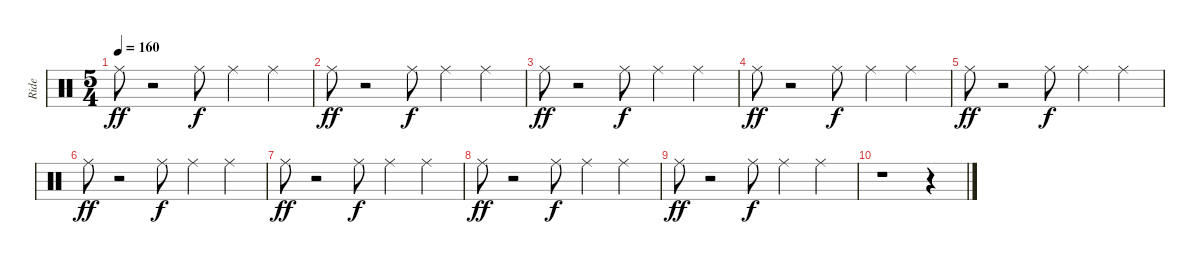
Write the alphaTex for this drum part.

\track ("Ride" "Ride") {instrument percussion}
\staff {score}
\articulation defaults
\ts (5 4)
\tempo 160
\clef neutral
\ks c "Ride (middle)".8{dy ff}
r.2 "Ride (middle)".8{dy f} "Ride (middle)".4 "Ride (middle)".4 |
"Ride (middle)".8{dy ff} r.2 "Ride (middle)".8{dy f} "Ride (middle)".4 "Ride (middle)".4 |
"Ride (middle)".8{dy ff} r.2 "Ride (middle)".8{dy f} "Ride (middle)".4 "Ride (middle)".4 |
"Ride (middle)".8{dy ff} r.2 "Ride (middle)".8{dy f} "Ride (middle)".4 "Ride (middle)".4 |
"Ride (middle)".8{dy ff} r.2 "Ride (middle)".8{dy f} "Ride (middle)".4 "Ride (middle)".4 |
"Ride (middle)".8{dy ff} r.2 "Ride (middle)".8{dy f} "Ride (middle)".4 "Ride (middle)".4 |
"Ride (middle)".8{dy ff} r.2 "Ride (middle)".8{dy f} "Ride (middle)".4 "Ride (middle)".4 |
"Ride (middle)".8{dy ff} r.2 "Ride (middle)".8{dy f} "Ride (middle)".4 "Ride (middle)".4 |
"Ride (middle)".8{dy ff} r.2 "Ride (middle)".8{dy f} "Ride (middle)".4 "Ride (middle)".4 |
r.1 r.4
